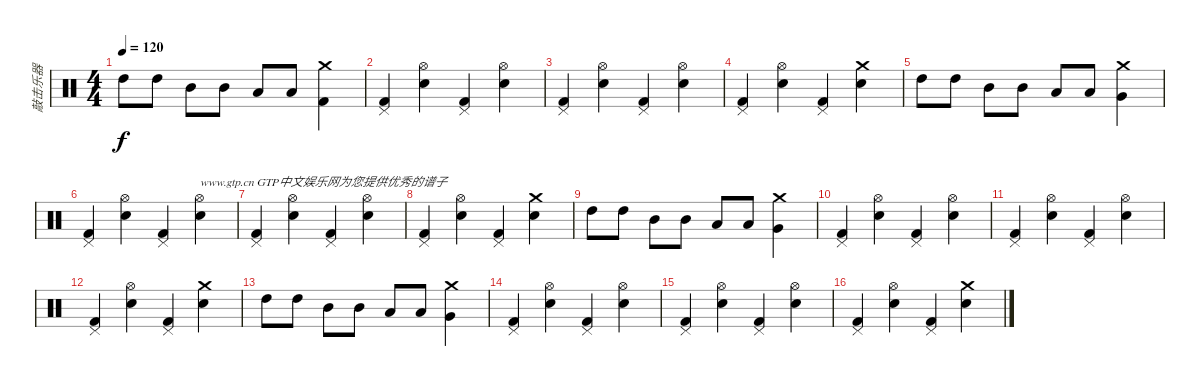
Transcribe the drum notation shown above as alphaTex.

\track ("敲击乐器" "敲击乐器") {instrument percussion}
\staff {score}
\articulation defaults
\ts (4 4)
\tempo 120
\clef neutral
\ks c "High Tom (hit)".8{dy f} "High Tom (hit)".8 "Mid Tom (hit)".8 "Mid Tom (hit)".8 "Low Tom (hit)".8 "Low Tom (hit)".8
("Crash medium (hit)" "Kick (hit) 2").4 |
("Pedal Hi-Hat (hit)" "Kick (hit) 2").4 ("Hi-Hat (open)" "Electric Snare (hit)").4 ("Pedal Hi-Hat (hit)" "Kick (hit) 2").4 ("Hi-Hat (open)" "Electric Snare (hit)").4 |
("Pedal Hi-Hat (hit)" "Kick (hit) 2").4 ("Hi-Hat (open)" "Electric Snare (hit)").4 ("Pedal Hi-Hat (hit)" "Kick (hit) 2").4 ("Hi-Hat (open)" "Electric Snare (hit)").4 |
("Pedal Hi-Hat (hit)" "Kick (hit) 2").4 ("Hi-Hat (open)" "Electric Snare (hit)").4 ("Pedal Hi-Hat (hit)" "Kick (hit) 2").4 ("Crash medium (hit)" "Electric Snare (hit)").4 |
"High Tom (hit)".8 "High Tom (hit)".8 "Mid Tom (hit)".8 "Mid Tom (hit)".8 "Low Tom (hit)".8 "Low Tom (hit)".8 ("Crash medium (hit)" "Very Low Tom (hit)").4 |
("Pedal Hi-Hat (hit)" "Kick (hit) 2").4 ("Hi-Hat (open)" "Electric Snare (hit)").4 ("Pedal Hi-Hat (hit)" "Kick (hit) 2").4 ("Hi-Hat (open)" "Electric Snare (hit)").4{txt "www.gtp.cn GTP中文娱乐网为您提供优秀的谱子"} |
("Pedal Hi-Hat (hit)" "Kick (hit) 2").4 ("Hi-Hat (open)" "Electric Snare (hit)").4 ("Pedal Hi-Hat (hit)" "Kick (hit) 2").4 ("Hi-Hat (open)" "Electric Snare (hit)").4 |
("Pedal Hi-Hat (hit)" "Kick (hit) 2").4 ("Hi-Hat (open)" "Electric Snare (hit)").4 ("Pedal Hi-Hat (hit)" "Kick (hit) 2").4 ("Crash medium (hit)" "Electric Snare (hit)").4 |
"High Tom (hit)".8 "High Tom (hit)".8 "Mid Tom (hit)".8 "Mid Tom (hit)".8 "Low Tom (hit)".8 "Low Tom (hit)".8 ("Crash medium (hit)" "Very Low Tom (hit)").4 |
("Pedal Hi-Hat (hit)" "Kick (hit) 2").4 ("Hi-Hat (open)" "Electric Snare (hit)").4 ("Pedal Hi-Hat (hit)" "Kick (hit) 2").4 ("Hi-Hat (open)" "Electric Snare (hit)").4 |
("Pedal Hi-Hat (hit)" "Kick (hit) 2").4 ("Hi-Hat (open)" "Electric Snare (hit)").4 ("Pedal Hi-Hat (hit)" "Kick (hit) 2").4 ("Hi-Hat (open)" "Electric Snare (hit)").4 |
("Pedal Hi-Hat (hit)" "Kick (hit) 2").4 ("Hi-Hat (open)" "Electric Snare (hit)").4 ("Pedal Hi-Hat (hit)" "Kick (hit) 2").4 ("Crash medium (hit)" "Electric Snare (hit)").4 |
"High Tom (hit)".8 "High Tom (hit)".8 "Mid Tom (hit)".8 "Mid Tom (hit)".8 "Low Tom (hit)".8 "Low Tom (hit)".8 ("Crash medium (hit)" "Very Low Tom (hit)").4 |
("Pedal Hi-Hat (hit)" "Kick (hit) 2").4 ("Hi-Hat (open)" "Electric Snare (hit)").4 ("Pedal Hi-Hat (hit)" "Kick (hit) 2").4 ("Hi-Hat (open)" "Electric Snare (hit)").4 |
("Pedal Hi-Hat (hit)" "Kick (hit) 2").4 ("Hi-Hat (open)" "Electric Snare (hit)").4 ("Pedal Hi-Hat (hit)" "Kick (hit) 2").4 ("Hi-Hat (open)" "Electric Snare (hit)").4 |
("Pedal Hi-Hat (hit)" "Kick (hit) 2").4 ("Hi-Hat (open)" "Electric Snare (hit)").4 ("Pedal Hi-Hat (hit)" "Kick (hit) 2").4 ("Crash medium (hit)" "Electric Snare (hit)").4
